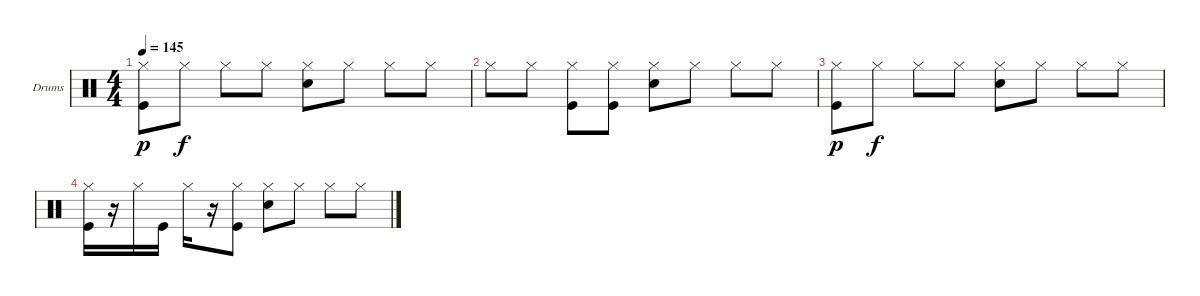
\bracketExtendMode groupsimilarinstruments
\firstSystemTrackNameOrientation horizontal
\otherSystemsTrackNameOrientation horizontal
\track ("Drumkit" "Drums") {instrument percussion}
\staff {score}
\articulation defaults
\ts (4 4)
\tempo 145
\clef neutral
\ks c
("Hi-Hat (closed)" "Kick (hit)").8{dy p} "Hi-Hat (closed)".8{dy f} "Hi-Hat (closed)".8 "Hi-Hat (closed)".8 ("Hi-Hat (closed)" "Snare (hit) 2").8 "Hi-Hat (closed)".8 "Hi-Hat (closed)".8 "Hi-Hat (closed)".8 |
"Hi-Hat (closed)".8 "Hi-Hat (closed)".8 ("Hi-Hat (closed)" "Kick (hit)").8 ("Hi-Hat (closed)" "Kick (hit)").8 ("Hi-Hat (closed)" "Snare (hit) 2").8 "Hi-Hat (closed)".8 "Hi-Hat (closed)".8 "Hi-Hat (closed)".8 |
("Hi-Hat (closed)" "Kick (hit)").8{dy p} "Hi-Hat (closed)".8{dy f} "Hi-Hat (closed)".8 "Hi-Hat (closed)".8 ("Hi-Hat (closed)" "Snare (hit) 2").8 "Hi-Hat (closed)".8 "Hi-Hat (closed)".8 "Hi-Hat (closed)".8 |
("Hi-Hat (closed)" "Kick (hit)").16 r.16 "Hi-Hat (closed)".16 "Kick (hit)".16 "Hi-Hat (closed)".16 r.16 ("Hi-Hat (closed)" "Kick (hit)").8 ("Hi-Hat (closed)" "Snare (hit) 2").8 "Hi-Hat (closed)".8 "Hi-Hat (closed)".8 "Hi-Hat (closed)".8
